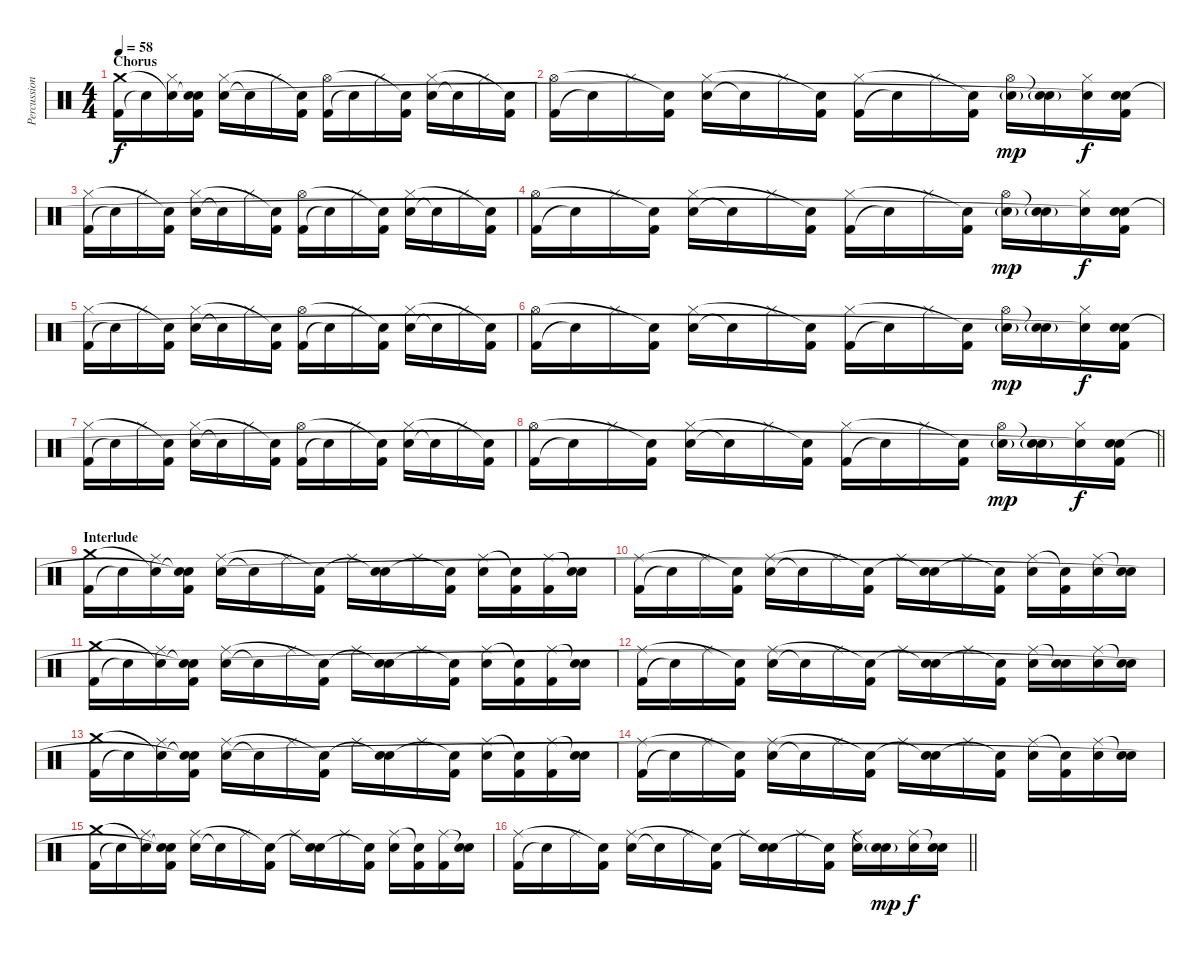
\track ("Percussion" "Percussion") {instrument percussion}
\staff {score}
\articulation defaults
\ts (4 4)
\section ("" "Chorus")
\tempo 58
\clef neutral
\ks c
("Kick (hit) 2" "Crash medium (hit)").16{dy f} "Snare (hit)"{t}.16 ("Hi-Hat (closed)" "Snare (hit)"{t}).16 ("Kick (hit) 2" "Snare (hit)"{t} "Snare (hit)"{t}).16 ("Electric Snare (hit)" "Hi-Hat (closed)").16 "Snare (hit)"{t}.16 "Hi-Hat (closed)".16 ("Kick (hit) 2" "Snare (hit)"{t}).16 ("Kick (hit) 2" "Hi-Hat (open)").16 "Snare (hit)"{t}.16 "Hi-Hat (closed)".16 ("Kick (hit) 2" "Snare (hit)"{t}).16 ("Electric Snare (hit)" "Hi-Hat (closed)").16 "Snare (hit)"{t}.16 "Hi-Hat (closed)".16 ("Kick (hit) 2" "Snare (hit)"{t}).16 |
("Kick (hit) 2" "Hi-Hat (open)").16 "Snare (hit)"{t}.16 "Hi-Hat (closed)".16 ("Kick (hit) 2" "Snare (hit)"{t}).16 ("Electric Snare (hit)" "Hi-Hat (closed)").16 "Snare (hit)"{t}.16 "Hi-Hat (closed)".16 ("Kick (hit) 2" "Snare (hit)"{t}).16 ("Kick (hit) 2" "Hi-Hat (closed)").16 "Snare (hit)"{t}.16 "Hi-Hat (closed)".16 ("Kick (hit) 2" "Snare (hit)"{t}).16 ("Electric Snare (hit)"{g} "Hi-Hat (open)").16{dy mp} ("Electric Snare (hit)"{g} "Snare (hit)"{t}).16 ("Electric Snare (hit)" "Hi-Hat (closed)").16{dy f} ("Kick (hit) 2" "Electric Snare (hit)" "Snare (hit)"{t}).16 |
("Kick (hit) 2" "Hi-Hat (closed)").16 "Snare (hit)"{t}.16 "Hi-Hat (closed)".16 ("Kick (hit) 2" "Snare (hit)"{t}).16 ("Electric Snare (hit)" "Hi-Hat (closed)").16 "Snare (hit)"{t}.16 "Hi-Hat (closed)".16 ("Kick (hit) 2" "Snare (hit)"{t}).16 ("Kick (hit) 2" "Hi-Hat (open)").16 "Snare (hit)"{t}.16 "Hi-Hat (closed)".16 ("Kick (hit) 2" "Snare (hit)"{t}).16 ("Electric Snare (hit)" "Hi-Hat (closed)").16 "Snare (hit)"{t}.16 "Hi-Hat (closed)".16 ("Kick (hit) 2" "Snare (hit)"{t}).16 |
("Kick (hit) 2" "Hi-Hat (open)").16 "Snare (hit)"{t}.16 "Hi-Hat (closed)".16 ("Kick (hit) 2" "Snare (hit)"{t}).16 ("Electric Snare (hit)" "Hi-Hat (closed)").16 "Snare (hit)"{t}.16 "Hi-Hat (closed)".16 ("Kick (hit) 2" "Snare (hit)"{t}).16 ("Kick (hit) 2" "Hi-Hat (closed)").16 "Snare (hit)"{t}.16 "Hi-Hat (closed)".16 ("Kick (hit) 2" "Snare (hit)"{t}).16 ("Electric Snare (hit)"{g} "Hi-Hat (open)").16{dy mp} ("Electric Snare (hit)"{g} "Snare (hit)"{t}).16 ("Electric Snare (hit)" "Hi-Hat (closed)").16{dy f} ("Kick (hit) 2" "Electric Snare (hit)" "Snare (hit)"{t}).16 |
("Kick (hit) 2" "Hi-Hat (closed)").16 "Snare (hit)"{t}.16 "Hi-Hat (closed)".16 ("Kick (hit) 2" "Snare (hit)"{t}).16 ("Electric Snare (hit)" "Hi-Hat (closed)").16 "Snare (hit)"{t}.16 "Hi-Hat (closed)".16 ("Kick (hit) 2" "Snare (hit)"{t}).16 ("Kick (hit) 2" "Hi-Hat (open)").16 "Snare (hit)"{t}.16 "Hi-Hat (closed)".16 ("Kick (hit) 2" "Snare (hit)"{t}).16 ("Electric Snare (hit)" "Hi-Hat (closed)").16 "Snare (hit)"{t}.16 "Hi-Hat (closed)".16 ("Kick (hit) 2" "Snare (hit)"{t}).16 |
("Kick (hit) 2" "Hi-Hat (open)").16 "Snare (hit)"{t}.16 "Hi-Hat (closed)".16 ("Kick (hit) 2" "Snare (hit)"{t}).16 ("Electric Snare (hit)" "Hi-Hat (closed)").16 "Snare (hit)"{t}.16 "Hi-Hat (closed)".16 ("Kick (hit) 2" "Snare (hit)"{t}).16 ("Kick (hit) 2" "Hi-Hat (closed)").16 "Snare (hit)"{t}.16 "Hi-Hat (closed)".16 ("Kick (hit) 2" "Snare (hit)"{t}).16 ("Electric Snare (hit)"{g} "Hi-Hat (open)").16{dy mp} ("Electric Snare (hit)"{g} "Snare (hit)"{t}).16 ("Electric Snare (hit)" "Hi-Hat (closed)").16{dy f} ("Kick (hit) 2" "Electric Snare (hit)" "Snare (hit)"{t}).16 |
("Kick (hit) 2" "Hi-Hat (closed)").16 "Snare (hit)"{t}.16 "Hi-Hat (closed)".16 ("Kick (hit) 2" "Snare (hit)"{t}).16 ("Electric Snare (hit)" "Hi-Hat (closed)").16 "Snare (hit)"{t}.16 "Hi-Hat (closed)".16 ("Kick (hit) 2" "Snare (hit)"{t}).16 ("Kick (hit) 2" "Hi-Hat (open)").16 "Snare (hit)"{t}.16 "Hi-Hat (closed)".16 ("Kick (hit) 2" "Snare (hit)"{t}).16 ("Electric Snare (hit)" "Hi-Hat (closed)").16 "Snare (hit)"{t}.16 "Hi-Hat (closed)".16 ("Kick (hit) 2" "Snare (hit)"{t}).16 |
\barLineRight lightlight
("Kick (hit) 2" "Hi-Hat (open)").16 "Snare (hit)"{t}.16 "Hi-Hat (closed)".16 ("Kick (hit) 2" "Snare (hit)"{t}).16 ("Electric Snare (hit)" "Hi-Hat (closed)").16 "Snare (hit)"{t}.16 "Hi-Hat (closed)".16 ("Kick (hit) 2" "Snare (hit)"{t}).16 ("Kick (hit) 2" "Hi-Hat (closed)").16 "Snare (hit)"{t}.16 "Hi-Hat (closed)".16 ("Kick (hit) 2" "Snare (hit)"{t}).16 ("Electric Snare (hit)"{g} "Hi-Hat (open)").16{dy mp} ("Electric Snare (hit)"{g} "Snare (hit)"{t}).16 ("Electric Snare (hit)" "Hi-Hat (closed)").16{dy f} ("Kick (hit) 2" "Electric Snare (hit)" "Snare (hit)"{t}).16 |
\section ("" "Interlude")
("Kick (hit) 2" "Crash medium (hit)").16 "Snare (hit)"{t}.16 ("Ride (middle)" "Snare (hit)"{t}).16 ("Kick (hit) 2" "Snare (hit)"{t} "Snare (hit)"{t}).16 ("Electric Snare (hit)" "Ride (middle)").16 "Snare (hit)"{t}.16 "Ride (middle)".16 ("Kick (hit) 2" "Snare (hit)"{t}).16 "Ride (middle)".16 ("Electric Snare (hit)" "Snare (hit)"{t}).16 "Ride (middle)".16 ("Kick (hit) 2" "Snare (hit)"{t}).16 ("Electric Snare (hit)" "Ride (middle)").16 ("Kick (hit) 2" "Snare (hit)"{t}).16 ("Kick (hit) 2" "Ride (middle)").16 ("Electric Snare (hit)" "Snare (hit)"{t}).16 |
("Kick (hit) 2" "Ride (middle)").16 "Snare (hit)"{t}.16 "Ride (middle)".16 ("Kick (hit) 2" "Snare (hit)"{t}).16 ("Electric Snare (hit)" "Ride (middle)").16 "Snare (hit)"{t}.16 "Ride (middle)".16 ("Kick (hit) 2" "Snare (hit)"{t}).16 "Ride (middle)".16 ("Electric Snare (hit)" "Snare (hit)"{t}).16 "Ride (middle)".16 ("Kick (hit) 2" "Snare (hit)"{t}).16 ("Electric Snare (hit)" "Ride (middle)").16 ("Kick (hit) 2" "Snare (hit)"{t}).16 ("Electric Snare (hit)" "Ride (middle)").16 ("Electric Snare (hit)" "Snare (hit)"{t}).16 |
("Kick (hit) 2" "Crash medium (hit)").16 "Snare (hit)"{t}.16 ("Ride (middle)" "Snare (hit)"{t}).16 ("Kick (hit) 2" "Snare (hit)"{t} "Snare (hit)"{t}).16 ("Electric Snare (hit)" "Ride (middle)").16 "Snare (hit)"{t}.16 "Ride (middle)".16 ("Kick (hit) 2" "Snare (hit)"{t}).16 "Ride (middle)".16 ("Electric Snare (hit)" "Snare (hit)"{t}).16 "Ride (middle)".16 ("Kick (hit) 2" "Snare (hit)"{t}).16 ("Electric Snare (hit)" "Ride (middle)").16 ("Kick (hit) 2" "Snare (hit)"{t}).16 ("Kick (hit) 2" "Ride (middle)").16 ("Electric Snare (hit)" "Snare (hit)"{t}).16 |
("Kick (hit) 2" "Ride (middle)").16 "Snare (hit)"{t}.16 "Ride (middle)".16 ("Kick (hit) 2" "Snare (hit)"{t}).16 ("Electric Snare (hit)" "Ride (middle)").16 "Snare (hit)"{t}.16 "Ride (middle)".16 ("Kick (hit) 2" "Snare (hit)"{t}).16 "Ride (middle)".16 ("Electric Snare (hit)" "Snare (hit)"{t}).16 "Ride (middle)".16 ("Kick (hit) 2" "Snare (hit)"{t}).16 ("Electric Snare (hit)" "Ride (middle)").16 ("Electric Snare (hit)" "Snare (hit)"{t}).16 ("Electric Snare (hit)" "Ride (middle)").16 ("Electric Snare (hit)" "Snare (hit)"{t}).16 |
("Kick (hit) 2" "Crash medium (hit)").16 "Snare (hit)"{t}.16 ("Ride (middle)" "Snare (hit)"{t}).16 ("Kick (hit) 2" "Snare (hit)"{t} "Snare (hit)"{t}).16 ("Electric Snare (hit)" "Ride (middle)").16 "Snare (hit)"{t}.16 "Ride (middle)".16 ("Kick (hit) 2" "Snare (hit)"{t}).16 "Ride (middle)".16 ("Electric Snare (hit)" "Snare (hit)"{t}).16 "Ride (middle)".16 ("Kick (hit) 2" "Snare (hit)"{t}).16 ("Electric Snare (hit)" "Ride (middle)").16 ("Kick (hit) 2" "Snare (hit)"{t}).16 ("Kick (hit) 2" "Ride (middle)").16 ("Electric Snare (hit)" "Snare (hit)"{t}).16 |
("Kick (hit) 2" "Ride (middle)").16 "Snare (hit)"{t}.16 "Ride (middle)".16 ("Kick (hit) 2" "Snare (hit)"{t}).16 ("Electric Snare (hit)" "Ride (middle)").16 "Snare (hit)"{t}.16 "Ride (middle)".16 ("Kick (hit) 2" "Snare (hit)"{t}).16 "Ride (middle)".16 ("Electric Snare (hit)" "Snare (hit)"{t}).16 "Ride (middle)".16 ("Kick (hit) 2" "Snare (hit)"{t}).16 ("Electric Snare (hit)" "Ride (middle)").16 ("Kick (hit) 2" "Snare (hit)"{t}).16 ("Electric Snare (hit)" "Ride (middle)").16 ("Electric Snare (hit)" "Snare (hit)"{t}).16 |
("Kick (hit) 2" "Crash medium (hit)").16 "Snare (hit)"{t}.16 ("Ride (middle)" "Snare (hit)"{t}).16 ("Kick (hit) 2" "Snare (hit)"{t} "Snare (hit)"{t}).16 ("Electric Snare (hit)" "Ride (middle)").16 "Snare (hit)"{t}.16 "Ride (middle)".16 ("Kick (hit) 2" "Snare (hit)"{t}).16 "Ride (middle)".16 ("Electric Snare (hit)" "Snare (hit)"{t}).16 "Ride (middle)".16 ("Kick (hit) 2" "Snare (hit)"{t}).16 ("Electric Snare (hit)" "Ride (middle)").16 ("Kick (hit) 2" "Snare (hit)"{t}).16 ("Kick (hit) 2" "Ride (middle)").16 ("Electric Snare (hit)" "Snare (hit)"{t}).16 |
\barLineRight lightlight
("Kick (hit) 2" "Ride (middle)").16 "Snare (hit)"{t}.16 "Ride (middle)".16 ("Kick (hit) 2" "Snare (hit)"{t}).16 ("Electric Snare (hit)" "Ride (middle)").16 "Snare (hit)"{t}.16 "Ride (middle)".16 ("Kick (hit) 2" "Snare (hit)"{t}).16 "Ride (middle)".16 ("Electric Snare (hit)" "Snare (hit)"{t}).16 "Ride (middle)".16 ("Kick (hit) 2" "Snare (hit)"{t}).16 ("Electric Snare (hit)" "Ride (middle)").16 ("Electric Snare (hit)"{g} "Snare (hit)"{t}).16{dy mp} ("Electric Snare (hit)" "Ride (middle)").16{dy f} ("Electric Snare (hit)" "Snare (hit)"{t}).16
